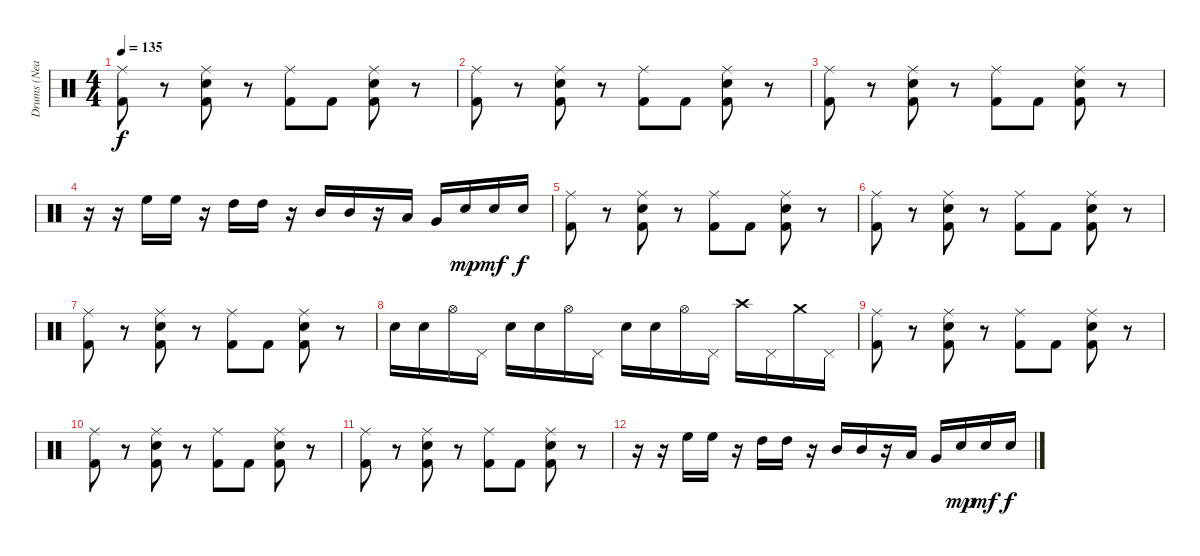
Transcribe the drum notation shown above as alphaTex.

\track ("Drums (Neal Peart)" "Drums (Nea") {instrument percussion}
\staff {score}
\articulation defaults
\ts (4 4)
\tempo 135
\clef neutral
\ks c
("Ride (middle)" "Kick (hit) 2").8{dy f} r.8 ("Ride (middle)" "Electric Snare (hit)" "Kick (hit) 2").8 r.8 ("Ride (middle)" "Kick (hit) 2").8 "Kick (hit) 2".8 ("Ride (middle)" "Electric Snare (hit)" "Kick (hit) 2").8 r.8 |
("Ride (middle)" "Kick (hit) 2").8 r.8 ("Ride (middle)" "Electric Snare (hit)" "Kick (hit) 2").8 r.8 ("Ride (middle)" "Kick (hit) 2").8 "Kick (hit) 2".8 ("Ride (middle)" "Electric Snare (hit)" "Kick (hit) 2").8 r.8 |
("Ride (middle)" "Kick (hit) 2").8 r.8 ("Ride (middle)" "Electric Snare (hit)" "Kick (hit) 2").8 r.8 ("Ride (middle)" "Kick (hit) 2").8 "Kick (hit) 2".8 ("Ride (middle)" "Electric Snare (hit)" "Kick (hit) 2").8 r.8 |
r.16 r.16 "High Floor Tom (hit)".16 "High Floor Tom (hit)".16 r.16 "High Tom (hit)".16 "High Tom (hit)".16 r.16 "Mid Tom (hit)".16 "Mid Tom (hit)".16 r.16 "Low Tom (hit)".16 "Very Low Tom (hit)".16 "Electric Snare (hit)".16{dy mp} "Electric Snare (hit)".16{dy mf} "Electric Snare (hit)".16{dy f} |
("Ride (middle)" "Kick (hit) 2").8 r.8 ("Ride (middle)" "Electric Snare (hit)" "Kick (hit) 2").8 r.8 ("Ride (middle)" "Kick (hit) 2").8 "Kick (hit) 2".8 ("Ride (middle)" "Electric Snare (hit)" "Kick (hit) 2").8 r.8 |
("Ride (middle)" "Kick (hit) 2").8 r.8 ("Ride (middle)" "Electric Snare (hit)" "Kick (hit) 2").8 r.8 ("Ride (middle)" "Kick (hit) 2").8 "Kick (hit) 2".8 ("Ride (middle)" "Electric Snare (hit)" "Kick (hit) 2").8 r.8 |
("Ride (middle)" "Kick (hit) 2").8 r.8 ("Ride (middle)" "Electric Snare (hit)" "Kick (hit) 2").8 r.8 ("Ride (middle)" "Kick (hit) 2").8 "Kick (hit) 2".8 ("Ride (middle)" "Electric Snare (hit)" "Kick (hit) 2").8 r.8 |
"Electric Snare (hit)".16 "Electric Snare (hit)".16 "Hi-Hat (open)".16 "Pedal Hi-Hat (hit)".16 "Electric Snare (hit)".16 "Electric Snare (hit)".16 "Hi-Hat (open)".16 "Pedal Hi-Hat (hit)".16 "Electric Snare (hit)".16 "Electric Snare (hit)".16 "Hi-Hat (open)".16 "Pedal Hi-Hat (hit)".16 "Crash high (hit)".16 "Pedal Hi-Hat (hit)".16 "Crash medium (hit)".16 "Pedal Hi-Hat (hit)".16 |
("Ride (middle)" "Kick (hit) 2").8 r.8 ("Ride (middle)" "Electric Snare (hit)" "Kick (hit) 2").8 r.8 ("Ride (middle)" "Kick (hit) 2").8 "Kick (hit) 2".8 ("Ride (middle)" "Electric Snare (hit)" "Kick (hit) 2").8 r.8 |
("Ride (middle)" "Kick (hit) 2").8 r.8 ("Ride (middle)" "Electric Snare (hit)" "Kick (hit) 2").8 r.8 ("Ride (middle)" "Kick (hit) 2").8 "Kick (hit) 2".8 ("Ride (middle)" "Electric Snare (hit)" "Kick (hit) 2").8 r.8 |
("Ride (middle)" "Kick (hit) 2").8 r.8 ("Ride (middle)" "Electric Snare (hit)" "Kick (hit) 2").8 r.8 ("Ride (middle)" "Kick (hit) 2").8 "Kick (hit) 2".8 ("Ride (middle)" "Electric Snare (hit)" "Kick (hit) 2").8 r.8 |
r.16 r.16 "High Floor Tom (hit)".16 "High Floor Tom (hit)".16 r.16 "High Tom (hit)".16 "High Tom (hit)".16 r.16 "Mid Tom (hit)".16 "Mid Tom (hit)".16 r.16 "Low Tom (hit)".16 "Very Low Tom (hit)".16 "Electric Snare (hit)".16{dy mp} "Electric Snare (hit)".16{dy mf} "Electric Snare (hit)".16{dy f}
